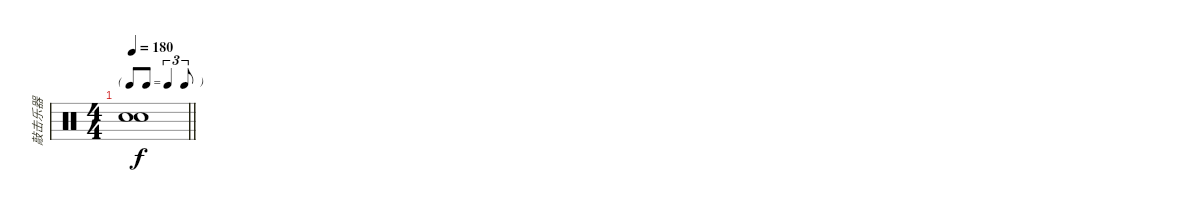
\track ("敲击乐器" "敲击乐器") {instrument percussion}
\staff {score}
\articulation defaults
\ts (4 4)
\tf triplet8th
\tempo 180
\clef neutral
\barLineRight lightlight
\ks c
("Snare (hit)"{t} "Snare (hit)"{t}).1{dy f}
